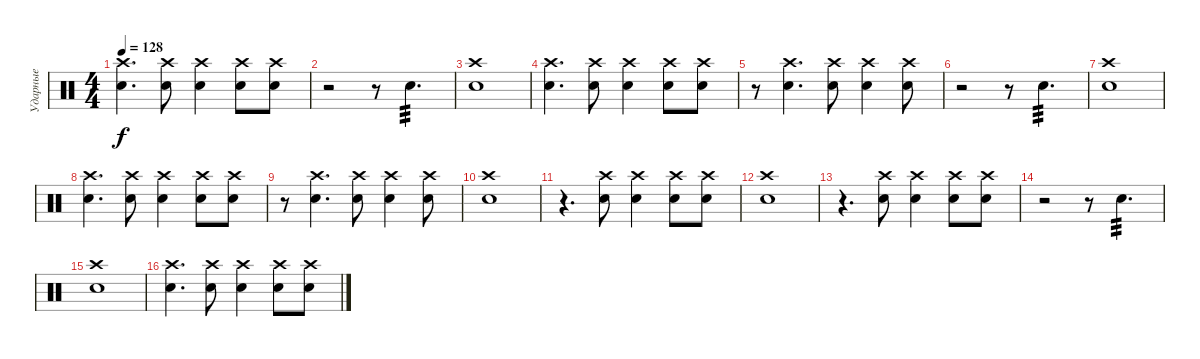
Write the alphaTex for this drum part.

\track ("Ударные" "Ударные") {instrument percussion}
\staff {score}
\articulation defaults
\ts (4 4)
\tempo 128
\clef neutral
\ks c
("Crash high (hit)" "Electric Snare (hit)").4{d dy f} ("Crash high (hit)" "Electric Snare (hit)").8 ("Crash high (hit)" "Electric Snare (hit)").4 ("Crash high (hit)" "Electric Snare (hit)").8 ("Crash high (hit)" "Electric Snare (hit)").8 |
r.2 r.8 "Electric Snare (hit)".4{d tp 3} |
("Crash high (hit)" "Electric Snare (hit)").1 |
("Crash high (hit)" "Electric Snare (hit)").4{d} ("Crash high (hit)" "Electric Snare (hit)").8 ("Crash high (hit)" "Electric Snare (hit)").4 ("Crash high (hit)" "Electric Snare (hit)").8 ("Crash high (hit)" "Electric Snare (hit)").8 |
r.8 ("Crash high (hit)" "Electric Snare (hit)").4{d} ("Crash high (hit)" "Electric Snare (hit)").8 ("Crash high (hit)" "Electric Snare (hit)").4 ("Crash high (hit)" "Electric Snare (hit)").8 |
r.2 r.8 "Electric Snare (hit)".4{d tp 3} |
("Crash high (hit)" "Electric Snare (hit)").1 |
("Crash high (hit)" "Electric Snare (hit)").4{d} ("Crash high (hit)" "Electric Snare (hit)").8 ("Crash high (hit)" "Electric Snare (hit)").4 ("Crash high (hit)" "Electric Snare (hit)").8 ("Crash high (hit)" "Electric Snare (hit)").8 |
r.8 ("Crash high (hit)" "Electric Snare (hit)").4{d} ("Crash high (hit)" "Electric Snare (hit)").8 ("Crash high (hit)" "Electric Snare (hit)").4 ("Crash high (hit)" "Electric Snare (hit)").8 |
("Crash high (hit)" "Electric Snare (hit)").1 |
r.4{d} ("Crash high (hit)" "Electric Snare (hit)").8 ("Crash high (hit)" "Electric Snare (hit)").4 ("Crash high (hit)" "Electric Snare (hit)").8 ("Crash high (hit)" "Electric Snare (hit)").8 |
("Crash high (hit)" "Electric Snare (hit)").1 |
r.4{d} ("Crash high (hit)" "Electric Snare (hit)").8 ("Crash high (hit)" "Electric Snare (hit)").4 ("Crash high (hit)" "Electric Snare (hit)").8 ("Crash high (hit)" "Electric Snare (hit)").8 |
r.2 r.8 "Electric Snare (hit)".4{d tp 3} |
("Crash high (hit)" "Electric Snare (hit)").1 |
("Crash high (hit)" "Electric Snare (hit)").4{d} ("Crash high (hit)" "Electric Snare (hit)").8 ("Crash high (hit)" "Electric Snare (hit)").4 ("Crash high (hit)" "Electric Snare (hit)").8 ("Crash high (hit)" "Electric Snare (hit)").8
